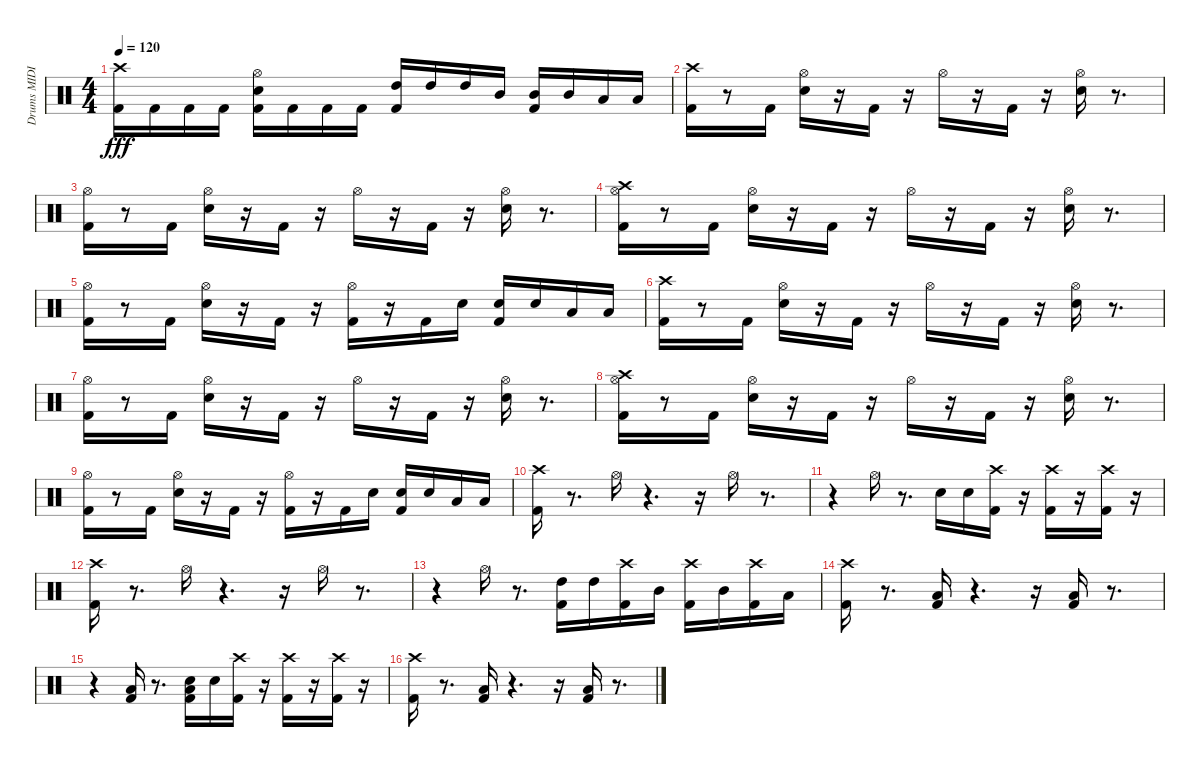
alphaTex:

\track ("Drums MIDI" "Drums MIDI") {instrument percussion}
\staff {score}
\articulation defaults
\ts (4 4)
\tempo 120
\clef neutral
\ks c
("Kick (hit) 2" "Crash high (hit)").16{dy fff} "Kick (hit) 2".16 "Kick (hit) 2".16 "Kick (hit) 2".16 ("Kick (hit) 2" "Snare (hit) 2" "Hi-Hat (open)").16 "Kick (hit) 2".16 "Kick (hit) 2".16 "Kick (hit) 2".16 ("Kick (hit) 2" "High Tom (hit)").16 "High Tom (hit)".16 "High Tom (hit)".16 "Mid Tom (hit)".16 ("Kick (hit) 2" "Mid Tom (hit)").16 "Mid Tom (hit)".16 "Low Tom (hit)".16 "Low Tom (hit)".16 |
("Kick (hit) 2" "Crash high (hit)").16 r.8 "Kick (hit) 2".16 ("Snare (hit) 2" "Hi-Hat (open)").16 r.16 "Kick (hit) 2".16 r.16 "Hi-Hat (open)".16 r.16 "Kick (hit) 2".16 r.16 ("Snare (hit) 2" "Hi-Hat (open)").16 r.8{d} |
("Kick (hit) 2" "Hi-Hat (open)").16 r.8 "Kick (hit) 2".16 ("Snare (hit) 2" "Hi-Hat (open)").16 r.16 "Kick (hit) 2".16 r.16 "Hi-Hat (open)".16 r.16 "Kick (hit) 2".16 r.16 ("Snare (hit) 2" "Hi-Hat (open)").16 r.8{d} |
("Kick (hit) 2" "Hi-Hat (open)" "Crash high (hit)").16 r.8 "Kick (hit) 2".16 ("Snare (hit) 2" "Hi-Hat (open)").16 r.16 "Kick (hit) 2".16 r.16 "Hi-Hat (open)".16 r.16 "Kick (hit) 2".16 r.16 ("Snare (hit) 2" "Hi-Hat (open)").16 r.8{d} |
("Kick (hit) 2" "Hi-Hat (open)").16 r.8 "Kick (hit) 2".16 ("Snare (hit) 2" "Hi-Hat (open)").16 r.16 "Kick (hit) 2".16 r.16 ("Kick (hit) 2" "Hi-Hat (open)").16 r.16 "Kick (hit) 2".16 "Snare (hit) 2".16 ("Kick (hit) 2" "Snare (hit) 2").16 "Snare (hit) 2".16 "Low Tom (hit)".16 "Low Tom (hit)".16 |
("Kick (hit) 2" "Crash high (hit)").16 r.8 "Kick (hit) 2".16 ("Snare (hit) 2" "Hi-Hat (open)").16 r.16 "Kick (hit) 2".16 r.16 "Hi-Hat (open)".16 r.16 "Kick (hit) 2".16 r.16 ("Snare (hit) 2" "Hi-Hat (open)").16 r.8{d} |
("Kick (hit) 2" "Hi-Hat (open)").16 r.8 "Kick (hit) 2".16 ("Snare (hit) 2" "Hi-Hat (open)").16 r.16 "Kick (hit) 2".16 r.16 "Hi-Hat (open)".16 r.16 "Kick (hit) 2".16 r.16 ("Snare (hit) 2" "Hi-Hat (open)").16 r.8{d} |
("Kick (hit) 2" "Hi-Hat (open)" "Crash high (hit)").16 r.8 "Kick (hit) 2".16 ("Snare (hit) 2" "Hi-Hat (open)").16 r.16 "Kick (hit) 2".16 r.16 "Hi-Hat (open)".16 r.16 "Kick (hit) 2".16 r.16 ("Snare (hit) 2" "Hi-Hat (open)").16 r.8{d} |
("Kick (hit) 2" "Hi-Hat (open)").16 r.8 "Kick (hit) 2".16 ("Snare (hit) 2" "Hi-Hat (open)").16 r.16 "Kick (hit) 2".16 r.16 ("Kick (hit) 2" "Hi-Hat (open)").16 r.16 "Kick (hit) 2".16 "Snare (hit) 2".16 ("Kick (hit) 2" "Snare (hit) 2").16 "Snare (hit) 2".16 "Low Tom (hit)".16 "Low Tom (hit)".16 |
("Kick (hit) 2" "Crash high (hit)").16 r.8{d} "Hi-Hat (open)".16 r.4{d} r.16 "Hi-Hat (open)".16 r.8{d} |
r.4 "Hi-Hat (open)".16 r.8{d} "Snare (hit) 2".16 "Snare (hit) 2".16 ("Kick (hit) 2" "Crash high (hit)").16 r.16 ("Kick (hit) 2" "Crash high (hit)").16 r.16 ("Kick (hit) 2" "Crash high (hit)").16 r.16 |
("Kick (hit) 2" "Crash high (hit)").16 r.8{d} "Hi-Hat (open)".16 r.4{d} r.16 "Hi-Hat (open)".16 r.8{d} |
r.4 "Hi-Hat (open)".16 r.8{d} ("Kick (hit) 2" "High Tom (hit)").16 "High Tom (hit)".16 ("Kick (hit) 2" "Crash high (hit)").16 "Mid Tom (hit)".16 ("Kick (hit) 2" "Crash high (hit)").16 "Mid Tom (hit)".16 ("Kick (hit) 2" "Crash high (hit)").16 "Low Tom (hit)".16 |
("Kick (hit) 2" "Crash high (hit)").16 r.8{d} ("Kick (hit) 2" "Low Tom (hit)").16 r.4{d} r.16 ("Kick (hit) 2" "Low Tom (hit)").16 r.8{d} |
r.4 ("Kick (hit) 2" "Low Tom (hit)").16 r.8{d} ("Kick (hit) 2" "Snare (hit) 2" "Low Tom (hit)").16 "Snare (hit) 2".16 ("Kick (hit) 2" "Crash high (hit)").16 r.16 ("Kick (hit) 2" "Crash high (hit)").16 r.16 ("Kick (hit) 2" "Crash high (hit)").16 r.16 |
("Kick (hit) 2" "Crash high (hit)").16 r.8{d} ("Kick (hit) 2" "Low Tom (hit)").16 r.4{d} r.16 ("Kick (hit) 2" "Low Tom (hit)").16 r.8{d}
